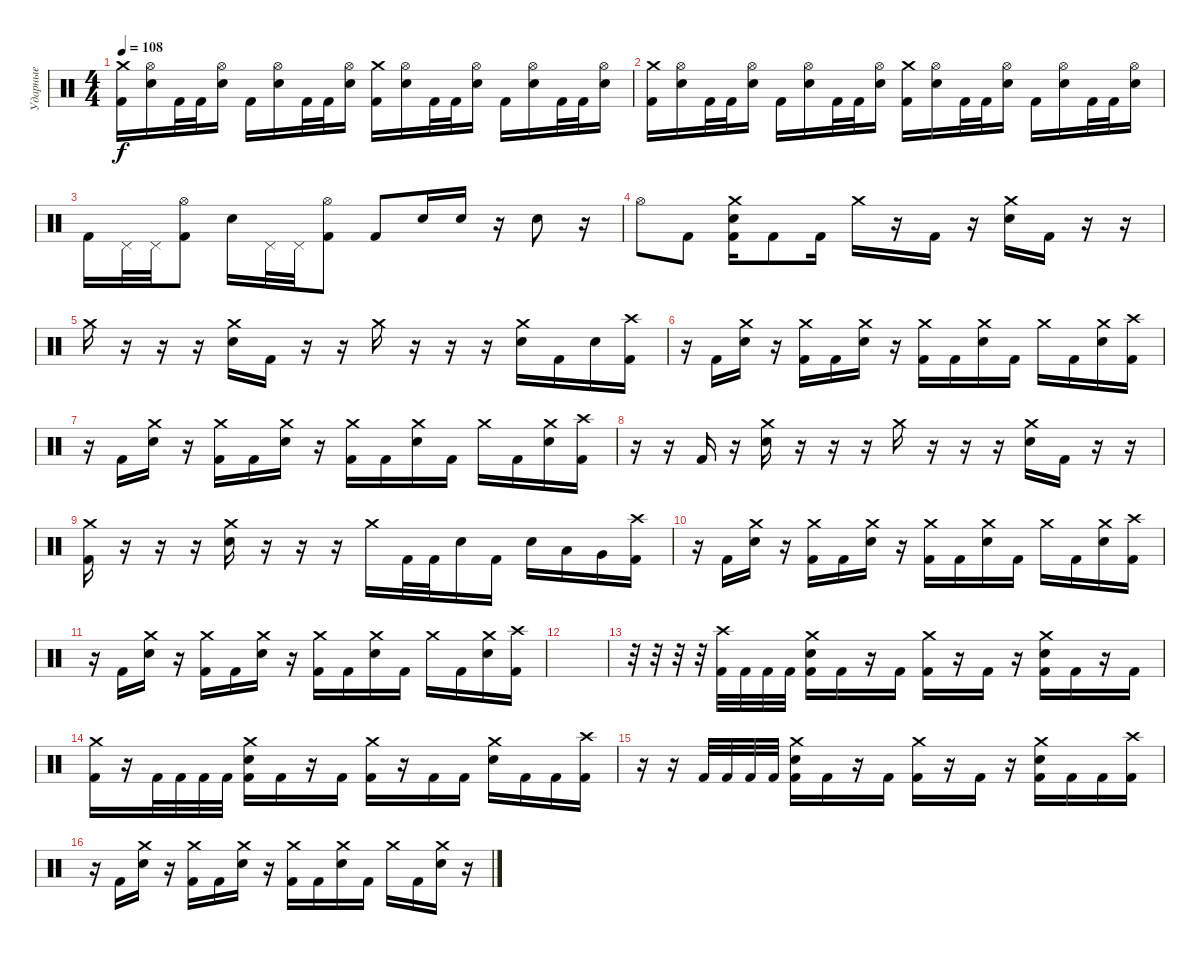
\track ("Ударные" "Ударные") {instrument percussion}
\staff {score}
\articulation defaults
\ts (4 4)
\tempo 108
\clef neutral
\ks c
("Crash medium (hit)" "Kick (hit) 2").16{dy f} ("Hi-Hat (open)" "Electric Snare (hit)").16 "Kick (hit) 2".32 "Kick (hit) 2".32 ("Hi-Hat (open)" "Electric Snare (hit)").16 "Kick (hit) 2".16 ("Hi-Hat (open)" "Electric Snare (hit)").16 "Kick (hit) 2".32 "Kick (hit) 2".32 ("Hi-Hat (open)" "Electric Snare (hit)").16 ("Crash medium (hit)" "Kick (hit) 2").16 ("Hi-Hat (open)" "Electric Snare (hit)").16 "Kick (hit) 2".32 "Kick (hit) 2".32 ("Hi-Hat (open)" "Electric Snare (hit)").16 "Kick (hit) 2".16 ("Hi-Hat (open)" "Electric Snare (hit)").16 "Kick (hit) 2".32 "Kick (hit) 2".32 ("Hi-Hat (open)" "Electric Snare (hit)").16 |
("Crash medium (hit)" "Kick (hit) 2").16 ("Hi-Hat (open)" "Electric Snare (hit)").16 "Kick (hit) 2".32 "Kick (hit) 2".32 ("Hi-Hat (open)" "Electric Snare (hit)").16 "Kick (hit) 2".16 ("Hi-Hat (open)" "Electric Snare (hit)").16 "Kick (hit) 2".32 "Kick (hit) 2".32 ("Hi-Hat (open)" "Electric Snare (hit)").16 ("Crash medium (hit)" "Kick (hit) 2").16 ("Hi-Hat (open)" "Electric Snare (hit)").16 "Kick (hit) 2".32 "Kick (hit) 2".32 ("Hi-Hat (open)" "Electric Snare (hit)").16 "Kick (hit) 2".16 ("Hi-Hat (open)" "Electric Snare (hit)").16 "Kick (hit) 2".32 "Kick (hit) 2".32 ("Hi-Hat (open)" "Electric Snare (hit)").16 |
"Kick (hit) 2".16 "Pedal Hi-Hat (hit)".32 "Pedal Hi-Hat (hit)".32 ("Hi-Hat (open)" "Kick (hit) 2").8 "Electric Snare (hit)".16 "Pedal Hi-Hat (hit)".32 "Pedal Hi-Hat (hit)".32 ("Hi-Hat (open)" "Kick (hit) 2").8 "Kick (hit) 2".8 "Electric Snare (hit)".16 "Electric Snare (hit)".16 r.16 "Electric Snare (hit)".8 r.16 |
"Hi-Hat (open)".8 "Kick (hit) 2".8 ("Crash medium (hit)" "Electric Snare (hit)" "Kick (hit) 2").16 "Kick (hit) 2".8 "Kick (hit) 2".16 "Crash medium (hit)".16 r.16 "Kick (hit) 2".16 r.16 ("Crash medium (hit)" "Electric Snare (hit)").16 "Kick (hit) 2".16 r.16 r.16 |
"Crash medium (hit)".16 r.16 r.16 r.16 ("Crash medium (hit)" "Electric Snare (hit)").16 "Kick (hit) 2".16 r.16 r.16 "Crash medium (hit)".16 r.16 r.16 r.16 ("Crash medium (hit)" "Electric Snare (hit)").16 "Kick (hit) 2".16 "Electric Snare (hit)".16 ("Crash high (hit)" "Kick (hit) 2").16 |
r.16 "Kick (hit) 2".16 ("Crash medium (hit)" "Electric Snare (hit)").16 r.16 ("Crash medium (hit)" "Kick (hit) 2").16 "Kick (hit) 2".16 ("Crash medium (hit)" "Electric Snare (hit)").16 r.16 ("Crash medium (hit)" "Kick (hit) 2").16 "Kick (hit) 2".16 ("Crash medium (hit)" "Electric Snare (hit)").16 "Kick (hit) 2".16 "Crash medium (hit)".16 "Kick (hit) 2".16 ("Crash medium (hit)" "Electric Snare (hit)").16 ("Crash high (hit)" "Kick (hit) 2").16 |
r.16 "Kick (hit) 2".16 ("Crash medium (hit)" "Electric Snare (hit)").16 r.16 ("Crash medium (hit)" "Kick (hit) 2").16 "Kick (hit) 2".16 ("Crash medium (hit)" "Electric Snare (hit)").16 r.16 ("Crash medium (hit)" "Kick (hit) 2").16 "Kick (hit) 2".16 ("Crash medium (hit)" "Electric Snare (hit)").16 "Kick (hit) 2".16 "Crash medium (hit)".16 "Kick (hit) 2".16 ("Crash medium (hit)" "Electric Snare (hit)").16 ("Crash high (hit)" "Kick (hit) 2").16 |
r.16 r.16 "Kick (hit) 2".16 r.16 ("Crash medium (hit)" "Electric Snare (hit)").16 r.16 r.16 r.16 "Crash medium (hit)".16 r.16 r.16 r.16 ("Crash medium (hit)" "Electric Snare (hit)").16 "Kick (hit) 2".16 r.16 r.16 |
("Crash medium (hit)" "Kick (hit) 2").16 r.16 r.16 r.16 ("Crash medium (hit)" "Electric Snare (hit)").16 r.16 r.16 r.16 "Crash medium (hit)".16 "Kick (hit) 2".32 "Kick (hit) 2".32 "Electric Snare (hit)".16 "Kick (hit) 2".16 "Electric Snare (hit)".16 "Low Tom (hit)".16 "Very Low Tom (hit)".16 ("Crash high (hit)" "Kick (hit) 2").16 |
r.16 "Kick (hit) 2".16 ("Crash medium (hit)" "Electric Snare (hit)").16 r.16 ("Crash medium (hit)" "Kick (hit) 2").16 "Kick (hit) 2".16 ("Crash medium (hit)" "Electric Snare (hit)").16 r.16 ("Crash medium (hit)" "Kick (hit) 2").16 "Kick (hit) 2".16 ("Crash medium (hit)" "Electric Snare (hit)").16 "Kick (hit) 2".16 "Crash medium (hit)".16 "Kick (hit) 2".16 ("Crash medium (hit)" "Electric Snare (hit)").16 ("Crash high (hit)" "Kick (hit) 2").16 |
r.16 "Kick (hit) 2".16 ("Crash medium (hit)" "Electric Snare (hit)").16 r.16 ("Crash medium (hit)" "Kick (hit) 2").16 "Kick (hit) 2".16 ("Crash medium (hit)" "Electric Snare (hit)").16 r.16 ("Crash medium (hit)" "Kick (hit) 2").16 "Kick (hit) 2".16 ("Crash medium (hit)" "Electric Snare (hit)").16 "Kick (hit) 2".16 "Crash medium (hit)".16 "Kick (hit) 2".16 ("Crash medium (hit)" "Electric Snare (hit)").16 ("Crash high (hit)" "Kick (hit) 2").16 |
|
r.32 r.32 r.32 r.32 ("Crash high (hit)" "Kick (hit) 2").32 "Kick (hit) 2".32 "Kick (hit) 2".32 "Kick (hit) 2".32 ("Crash medium (hit)" "Electric Snare (hit)" "Kick (hit) 2").16 "Kick (hit) 2".16 r.16 "Kick (hit) 2".16 ("Crash medium (hit)" "Kick (hit) 2").16 r.16 "Kick (hit) 2".16 r.16 ("Crash medium (hit)" "Electric Snare (hit)" "Kick (hit) 2").16 "Kick (hit) 2".16 r.16 "Kick (hit) 2".16 |
("Crash medium (hit)" "Kick (hit) 2").16 r.16 "Kick (hit) 2".32 "Kick (hit) 2".32 "Kick (hit) 2".32 "Kick (hit) 2".32 ("Crash medium (hit)" "Electric Snare (hit)" "Kick (hit) 2").16 "Kick (hit) 2".16 r.16 "Kick (hit) 2".16 ("Crash medium (hit)" "Kick (hit) 2").16 r.16 "Kick (hit) 2".16 "Kick (hit) 2".16 ("Crash medium (hit)" "Electric Snare (hit)").16 "Kick (hit) 2".16 "Kick (hit) 2".16 ("Crash high (hit)" "Kick (hit) 2").16 |
r.16 r.16 "Kick (hit) 2".32 "Kick (hit) 2".32 "Kick (hit) 2".32 "Kick (hit) 2".32 ("Crash medium (hit)" "Electric Snare (hit)" "Kick (hit) 2").16 "Kick (hit) 2".16 r.16 "Kick (hit) 2".16 ("Crash medium (hit)" "Kick (hit) 2").16 r.16 "Kick (hit) 2".16 r.16 ("Crash medium (hit)" "Electric Snare (hit)" "Kick (hit) 2").16 "Kick (hit) 2".16 "Kick (hit) 2".16 ("Crash high (hit)" "Kick (hit) 2").16 |
r.16 "Kick (hit) 2".16 ("Crash medium (hit)" "Electric Snare (hit)").16 r.16 ("Crash medium (hit)" "Kick (hit) 2").16 "Kick (hit) 2".16 ("Crash medium (hit)" "Electric Snare (hit)").16 r.16 ("Crash medium (hit)" "Kick (hit) 2").16 "Kick (hit) 2".16 ("Crash medium (hit)" "Electric Snare (hit)").16 "Kick (hit) 2".16 "Crash medium (hit)".16 "Kick (hit) 2".16 ("Crash medium (hit)" "Electric Snare (hit)").16 r.16
